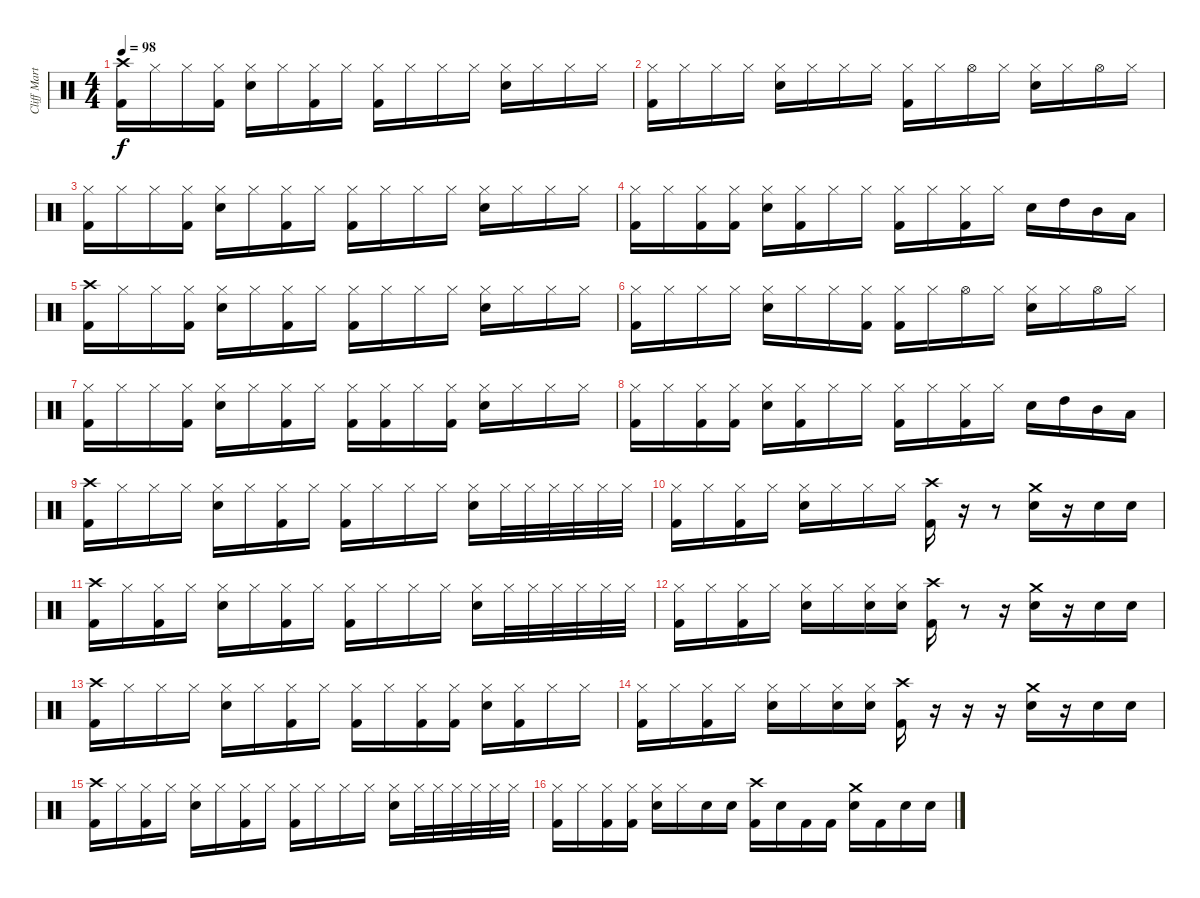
\track ("Cliff Martinez" "Cliff Mart") {instrument percussion bank 1}
\staff {score}
\articulation defaults
\ts (4 4)
\tempo 98
\clef neutral
\ks c
("Crash high (hit)" "Kick (hit) 2").16{dy f} "Hi-Hat (closed)".16 "Hi-Hat (closed)".16 ("Hi-Hat (closed)" "Kick (hit) 2").16 ("Hi-Hat (closed)" "Snare (hit) 2").16 "Hi-Hat (closed)".16 ("Hi-Hat (closed)" "Kick (hit) 2").16 "Hi-Hat (closed)".16 ("Hi-Hat (closed)" "Kick (hit) 2").16 "Hi-Hat (closed)".16 "Hi-Hat (closed)".16 "Hi-Hat (closed)".16 ("Hi-Hat (closed)" "Snare (hit) 2").16 "Hi-Hat (closed)".16 "Hi-Hat (closed)".16 "Hi-Hat (closed)".16 |
("Hi-Hat (closed)" "Kick (hit) 2").16 "Hi-Hat (closed)".16 "Hi-Hat (closed)".16 "Hi-Hat (closed)".16 ("Hi-Hat (closed)" "Snare (hit) 2").16 "Hi-Hat (closed)".16 "Hi-Hat (closed)".16 "Hi-Hat (closed)".16 ("Hi-Hat (closed)" "Kick (hit) 2").16 "Hi-Hat (closed)".16 "Hi-Hat (open)".16 "Hi-Hat (closed)".16 ("Hi-Hat (closed)" "Snare (hit) 2").16 "Hi-Hat (closed)".16 "Hi-Hat (open)".16 "Hi-Hat (closed)".16 |
("Hi-Hat (closed)" "Kick (hit) 2").16 "Hi-Hat (closed)".16 "Hi-Hat (closed)".16 ("Hi-Hat (closed)" "Kick (hit) 2").16 ("Hi-Hat (closed)" "Snare (hit) 2").16 "Hi-Hat (closed)".16 ("Hi-Hat (closed)" "Kick (hit) 2").16 "Hi-Hat (closed)".16 ("Hi-Hat (closed)" "Kick (hit) 2").16 "Hi-Hat (closed)".16 "Hi-Hat (closed)".16 "Hi-Hat (closed)".16 ("Hi-Hat (closed)" "Snare (hit) 2").16 "Hi-Hat (closed)".16 "Hi-Hat (closed)".16 "Hi-Hat (closed)".16 |
("Hi-Hat (closed)" "Kick (hit) 2").16 "Hi-Hat (closed)".16 ("Hi-Hat (closed)" "Kick (hit) 2").16 ("Hi-Hat (closed)" "Kick (hit) 2").16 ("Hi-Hat (closed)" "Snare (hit) 2").16 ("Hi-Hat (closed)" "Kick (hit) 2").16 "Hi-Hat (closed)".16 "Hi-Hat (closed)".16 ("Hi-Hat (closed)" "Kick (hit) 2").16 "Hi-Hat (closed)".16 ("Hi-Hat (closed)" "Kick (hit) 2").16 "Hi-Hat (closed)".16 "Snare (hit) 2".16 "High Tom (hit)".16 "Mid Tom (hit)".16 "Low Tom (hit)".16 |
("Crash high (hit)" "Kick (hit) 2").16 "Hi-Hat (closed)".16 "Hi-Hat (closed)".16 ("Hi-Hat (closed)" "Kick (hit) 2").16 ("Hi-Hat (closed)" "Snare (hit) 2").16 "Hi-Hat (closed)".16 ("Hi-Hat (closed)" "Kick (hit) 2").16 "Hi-Hat (closed)".16 ("Hi-Hat (closed)" "Kick (hit) 2").16 "Hi-Hat (closed)".16 "Hi-Hat (closed)".16 "Hi-Hat (closed)".16 ("Hi-Hat (closed)" "Snare (hit) 2").16 "Hi-Hat (closed)".16 "Hi-Hat (closed)".16 "Hi-Hat (closed)".16 |
("Hi-Hat (closed)" "Kick (hit) 2").16 "Hi-Hat (closed)".16 "Hi-Hat (closed)".16 "Hi-Hat (closed)".16 ("Hi-Hat (closed)" "Snare (hit) 2").16 "Hi-Hat (closed)".16 "Hi-Hat (closed)".16 ("Hi-Hat (closed)" "Kick (hit) 2").16 ("Hi-Hat (closed)" "Kick (hit) 2").16 "Hi-Hat (closed)".16 "Hi-Hat (open)".16 "Hi-Hat (closed)".16 ("Hi-Hat (closed)" "Snare (hit) 2").16 "Hi-Hat (closed)".16 "Hi-Hat (open)".16 "Hi-Hat (closed)".16 |
("Hi-Hat (closed)" "Kick (hit) 2").16 "Hi-Hat (closed)".16 "Hi-Hat (closed)".16 ("Hi-Hat (closed)" "Kick (hit) 2").16 ("Hi-Hat (closed)" "Snare (hit) 2").16 "Hi-Hat (closed)".16 ("Hi-Hat (closed)" "Kick (hit) 2").16 "Hi-Hat (closed)".16 ("Hi-Hat (closed)" "Kick (hit) 2").16 ("Hi-Hat (closed)" "Kick (hit) 2").16 "Hi-Hat (closed)".16 ("Hi-Hat (closed)" "Kick (hit) 2").16 ("Hi-Hat (closed)" "Snare (hit) 2").16 "Hi-Hat (closed)".16 "Hi-Hat (closed)".16 "Hi-Hat (closed)".16 |
("Hi-Hat (closed)" "Kick (hit) 2").16 "Hi-Hat (closed)".16 ("Hi-Hat (closed)" "Kick (hit) 2").16 ("Hi-Hat (closed)" "Kick (hit) 2").16 ("Hi-Hat (closed)" "Snare (hit) 2").16 ("Hi-Hat (closed)" "Kick (hit) 2").16 "Hi-Hat (closed)".16 "Hi-Hat (closed)".16 ("Hi-Hat (closed)" "Kick (hit) 2").16 "Hi-Hat (closed)".16 ("Hi-Hat (closed)" "Kick (hit) 2").16 "Hi-Hat (closed)".16 "Snare (hit) 2".16 "High Tom (hit)".16 "Mid Tom (hit)".16 "Low Tom (hit)".16 |
("Crash high (hit)" "Kick (hit) 2").16 "Hi-Hat (closed)".16 "Hi-Hat (closed)".16 "Hi-Hat (closed)".16 ("Hi-Hat (closed)" "Snare (hit) 2").16 "Hi-Hat (closed)".16 ("Hi-Hat (closed)" "Kick (hit) 2").16 "Hi-Hat (closed)".16 ("Hi-Hat (closed)" "Kick (hit) 2").16 "Hi-Hat (closed)".16 "Hi-Hat (closed)".16 "Hi-Hat (closed)".16 ("Hi-Hat (closed)" "Snare (hit) 2").16 "Hi-Hat (closed)".32 "Hi-Hat (closed)".32 "Hi-Hat (closed)".32 "Hi-Hat (closed)".32 "Hi-Hat (closed)".32 "Hi-Hat (closed)".32 |
("Hi-Hat (closed)" "Kick (hit) 2").16 "Hi-Hat (closed)".16 ("Hi-Hat (closed)" "Kick (hit) 2").16 "Hi-Hat (closed)".16 ("Hi-Hat (closed)" "Snare (hit) 2").16 "Hi-Hat (closed)".16 "Hi-Hat (closed)".16 "Hi-Hat (closed)".16 ("Crash high (hit)" "Kick (hit) 2").16 r.16 r.8 ("Crash medium (hit)" "Snare (hit) 2").16 r.16 "Snare (hit) 2".16 "Snare (hit) 2".16 |
("Crash high (hit)" "Kick (hit) 2").16 "Hi-Hat (closed)".16 ("Hi-Hat (closed)" "Kick (hit) 2").16 "Hi-Hat (closed)".16 ("Hi-Hat (closed)" "Snare (hit) 2").16 "Hi-Hat (closed)".16 ("Hi-Hat (closed)" "Kick (hit) 2").16 "Hi-Hat (closed)".16 ("Hi-Hat (closed)" "Kick (hit) 2").16 "Hi-Hat (closed)".16 "Hi-Hat (closed)".16 "Hi-Hat (closed)".16 ("Hi-Hat (closed)" "Snare (hit) 2").16 "Hi-Hat (closed)".32 "Hi-Hat (closed)".32 "Hi-Hat (closed)".32 "Hi-Hat (closed)".32 "Hi-Hat (closed)".32 "Hi-Hat (closed)".32 |
("Hi-Hat (closed)" "Kick (hit) 2").16 "Hi-Hat (closed)".16 ("Hi-Hat (closed)" "Kick (hit) 2").16 "Hi-Hat (closed)".16 ("Hi-Hat (closed)" "Snare (hit) 2").16 "Hi-Hat (closed)".16 ("Hi-Hat (closed)" "Snare (hit) 2").16 ("Hi-Hat (closed)" "Snare (hit) 2").16 ("Crash high (hit)" "Kick (hit) 2").16 r.8 r.16 ("Crash medium (hit)" "Snare (hit) 2").16 r.16 "Snare (hit) 2".16 "Snare (hit) 2".16 |
("Crash high (hit)" "Kick (hit) 2").16 "Hi-Hat (closed)".16 "Hi-Hat (closed)".16 "Hi-Hat (closed)".16 ("Hi-Hat (closed)" "Snare (hit) 2").16 "Hi-Hat (closed)".16 ("Hi-Hat (closed)" "Kick (hit) 2").16 "Hi-Hat (closed)".16 ("Hi-Hat (closed)" "Kick (hit) 2").16 "Hi-Hat (closed)".16 ("Hi-Hat (closed)" "Kick (hit) 2").16 ("Hi-Hat (closed)" "Kick (hit) 2").16 ("Hi-Hat (closed)" "Snare (hit) 2").16 ("Hi-Hat (closed)" "Kick (hit) 2").16 "Hi-Hat (closed)".16 "Hi-Hat (closed)".16 |
("Hi-Hat (closed)" "Kick (hit) 2").16 "Hi-Hat (closed)".16 ("Hi-Hat (closed)" "Kick (hit) 2").16 "Hi-Hat (closed)".16 ("Hi-Hat (closed)" "Snare (hit) 2").16 "Hi-Hat (closed)".16 ("Hi-Hat (closed)" "Snare (hit) 2").16 ("Hi-Hat (closed)" "Snare (hit) 2").16 ("Crash high (hit)" "Kick (hit) 2").16 r.16 r.16 r.16 ("Crash medium (hit)" "Snare (hit) 2").16 r.16 "Snare (hit) 2".16 "Snare (hit) 2".16 |
("Crash high (hit)" "Kick (hit) 2").16 "Hi-Hat (closed)".16 ("Hi-Hat (closed)" "Kick (hit) 2").16 "Hi-Hat (closed)".16 ("Hi-Hat (closed)" "Snare (hit) 2").16 "Hi-Hat (closed)".16 ("Hi-Hat (closed)" "Kick (hit) 2").16 "Hi-Hat (closed)".16 ("Hi-Hat (closed)" "Kick (hit) 2").16 "Hi-Hat (closed)".16 "Hi-Hat (closed)".16 "Hi-Hat (closed)".16 ("Hi-Hat (closed)" "Snare (hit) 2").16 "Hi-Hat (closed)".32 "Hi-Hat (closed)".32 "Hi-Hat (closed)".32 "Hi-Hat (closed)".32 "Hi-Hat (closed)".32 "Hi-Hat (closed)".32 |
("Hi-Hat (closed)" "Kick (hit) 2").16 "Hi-Hat (closed)".16 ("Hi-Hat (closed)" "Kick (hit) 2").16 ("Hi-Hat (closed)" "Kick (hit) 2").16 ("Hi-Hat (closed)" "Snare (hit) 2").16 "Hi-Hat (closed)".16 "Snare (hit) 2".16 "Snare (hit) 2".16 ("Crash high (hit)" "Kick (hit) 2").16 "Snare (hit) 2".16 "Kick (hit) 2".16 "Kick (hit) 2".16 ("Crash medium (hit)" "Snare (hit) 2").16 "Kick (hit) 2".16 "Snare (hit) 2".16 "Snare (hit) 2".16
